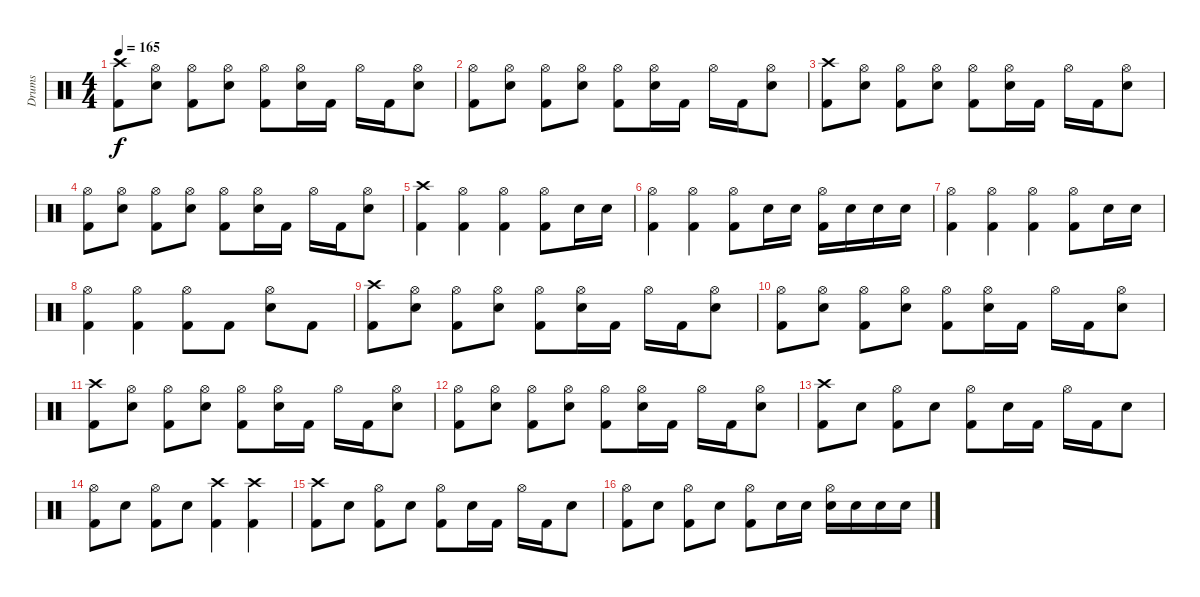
\track ("Drums" "Drums") {instrument percussion}
\staff {score}
\articulation defaults
\ts (4 4)
\tempo 165
\clef neutral
\ks c
("Crash high (hit)" "Kick (hit) 2").8{dy f} ("Hi-Hat (open)" "Electric Snare (hit)").8 ("Hi-Hat (open)" "Kick (hit) 2").8 ("Hi-Hat (open)" "Electric Snare (hit)").8 ("Hi-Hat (open)" "Kick (hit) 2").8 ("Hi-Hat (open)" "Electric Snare (hit)").16 "Kick (hit) 2".16 "Hi-Hat (open)".16 "Kick (hit) 2".16 ("Hi-Hat (open)" "Electric Snare (hit)").8 |
("Hi-Hat (open)" "Kick (hit) 2").8 ("Hi-Hat (open)" "Electric Snare (hit)").8 ("Hi-Hat (open)" "Kick (hit) 2").8 ("Hi-Hat (open)" "Electric Snare (hit)").8 ("Hi-Hat (open)" "Kick (hit) 2").8 ("Hi-Hat (open)" "Electric Snare (hit)").16 "Kick (hit) 2".16 "Hi-Hat (open)".16 "Kick (hit) 2".16 ("Hi-Hat (open)" "Electric Snare (hit)").8 |
("Crash high (hit)" "Kick (hit) 2").8 ("Hi-Hat (open)" "Electric Snare (hit)").8 ("Hi-Hat (open)" "Kick (hit) 2").8 ("Hi-Hat (open)" "Electric Snare (hit)").8 ("Hi-Hat (open)" "Kick (hit) 2").8 ("Hi-Hat (open)" "Electric Snare (hit)").16 "Kick (hit) 2".16 "Hi-Hat (open)".16 "Kick (hit) 2".16 ("Hi-Hat (open)" "Electric Snare (hit)").8 |
("Hi-Hat (open)" "Kick (hit) 2").8 ("Hi-Hat (open)" "Electric Snare (hit)").8 ("Hi-Hat (open)" "Kick (hit) 2").8 ("Hi-Hat (open)" "Electric Snare (hit)").8 ("Hi-Hat (open)" "Kick (hit) 2").8 ("Hi-Hat (open)" "Electric Snare (hit)").16 "Kick (hit) 2".16 "Hi-Hat (open)".16 "Kick (hit) 2".16 ("Hi-Hat (open)" "Electric Snare (hit)").8 |
("Crash high (hit)" "Kick (hit) 2").4 ("Hi-Hat (open)" "Kick (hit) 2").4 ("Hi-Hat (open)" "Kick (hit) 2").4 ("Hi-Hat (open)" "Kick (hit) 2").8 "Electric Snare (hit)".16 "Electric Snare (hit)".16 |
("Hi-Hat (open)" "Kick (hit) 2").4 ("Hi-Hat (open)" "Kick (hit) 2").4 ("Hi-Hat (open)" "Kick (hit) 2").8 "Electric Snare (hit)".16 "Electric Snare (hit)".16 ("Hi-Hat (open)" "Kick (hit) 2").16 "Electric Snare (hit)".16 "Electric Snare (hit)".16 "Electric Snare (hit)".16 |
("Hi-Hat (open)" "Kick (hit) 2").4 ("Hi-Hat (open)" "Kick (hit) 2").4 ("Hi-Hat (open)" "Kick (hit) 2").4 ("Hi-Hat (open)" "Kick (hit) 2").8 "Electric Snare (hit)".16 "Electric Snare (hit)".16 |
("Hi-Hat (open)" "Kick (hit) 2").4 ("Hi-Hat (open)" "Kick (hit) 2").4 ("Hi-Hat (open)" "Kick (hit) 2").8 "Kick (hit) 2".8 ("Hi-Hat (open)" "Electric Snare (hit)").8 "Kick (hit) 2".8 |
("Crash high (hit)" "Kick (hit) 2").8 ("Hi-Hat (open)" "Electric Snare (hit)").8 ("Hi-Hat (open)" "Kick (hit) 2").8 ("Hi-Hat (open)" "Electric Snare (hit)").8 ("Hi-Hat (open)" "Kick (hit) 2").8 ("Hi-Hat (open)" "Electric Snare (hit)").16 "Kick (hit) 2".16 "Hi-Hat (open)".16 "Kick (hit) 2".16 ("Hi-Hat (open)" "Electric Snare (hit)").8 |
("Hi-Hat (open)" "Kick (hit) 2").8 ("Hi-Hat (open)" "Electric Snare (hit)").8 ("Hi-Hat (open)" "Kick (hit) 2").8 ("Hi-Hat (open)" "Electric Snare (hit)").8 ("Hi-Hat (open)" "Kick (hit) 2").8 ("Hi-Hat (open)" "Electric Snare (hit)").16 "Kick (hit) 2".16 "Hi-Hat (open)".16 "Kick (hit) 2".16 ("Hi-Hat (open)" "Electric Snare (hit)").8 |
("Crash high (hit)" "Kick (hit) 2").8 ("Hi-Hat (open)" "Electric Snare (hit)").8 ("Hi-Hat (open)" "Kick (hit) 2").8 ("Hi-Hat (open)" "Electric Snare (hit)").8 ("Hi-Hat (open)" "Kick (hit) 2").8 ("Hi-Hat (open)" "Electric Snare (hit)").16 "Kick (hit) 2".16 "Hi-Hat (open)".16 "Kick (hit) 2".16 ("Hi-Hat (open)" "Electric Snare (hit)").8 |
("Hi-Hat (open)" "Kick (hit) 2").8 ("Hi-Hat (open)" "Electric Snare (hit)").8 ("Hi-Hat (open)" "Kick (hit) 2").8 ("Hi-Hat (open)" "Electric Snare (hit)").8 ("Hi-Hat (open)" "Kick (hit) 2").8 ("Hi-Hat (open)" "Electric Snare (hit)").16 "Kick (hit) 2".16 "Hi-Hat (open)".16 "Kick (hit) 2".16 ("Hi-Hat (open)" "Electric Snare (hit)").8 |
("Crash high (hit)" "Kick (hit) 2").8 "Electric Snare (hit)".8 ("Hi-Hat (open)" "Kick (hit) 2").8 "Electric Snare (hit)".8 ("Hi-Hat (open)" "Kick (hit) 2").8 "Electric Snare (hit)".16 "Kick (hit) 2".16 "Hi-Hat (open)".16 "Kick (hit) 2".16 "Electric Snare (hit)".8 |
("Hi-Hat (open)" "Kick (hit) 2").8 "Electric Snare (hit)".8 ("Hi-Hat (open)" "Kick (hit) 2").8 "Electric Snare (hit)".8 ("Crash high (hit)" "Kick (hit) 2").4 ("Crash high (hit)" "Kick (hit) 2").4 |
("Crash high (hit)" "Kick (hit) 2").8 "Electric Snare (hit)".8 ("Hi-Hat (open)" "Kick (hit) 2").8 "Electric Snare (hit)".8 ("Hi-Hat (open)" "Kick (hit) 2").8 "Electric Snare (hit)".16 "Kick (hit) 2".16 "Hi-Hat (open)".16 "Kick (hit) 2".16 "Electric Snare (hit)".8 |
("Hi-Hat (open)" "Kick (hit) 2").8 "Electric Snare (hit)".8 ("Hi-Hat (open)" "Kick (hit) 2").8 "Electric Snare (hit)".8 ("Hi-Hat (open)" "Kick (hit) 2").8 "Electric Snare (hit)".16 "Electric Snare (hit)".16 ("Hi-Hat (open)" "Electric Snare (hit)").16 "Electric Snare (hit)".16 "Electric Snare (hit)".16 "Electric Snare (hit)".16
